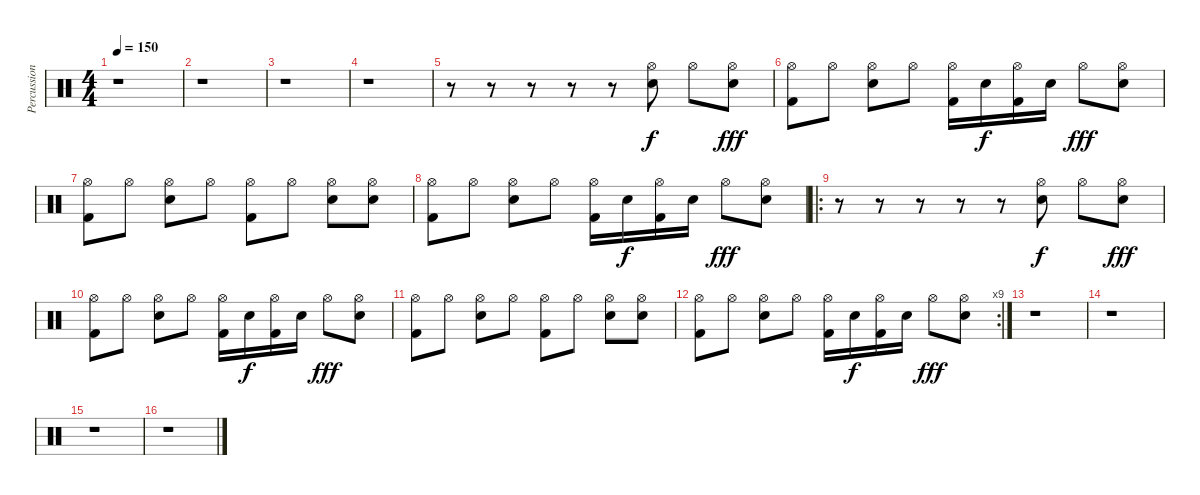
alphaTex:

\track ("Percussions" "Percussion") {instrument percussion}
\staff {score}
\articulation defaults
\ts (4 4)
\tempo 150
\clef neutral
\ks c
r.1{dy f} |
r.1 |
r.1 |
r.1 |
r.8 r.8 r.8 r.8 r.8 ("Hi-Hat (open)" "Electric Snare (hit)").8 "Hi-Hat (open)".8 ("Hi-Hat (open)" "Electric Snare (hit)").8{dy fff} |
("Hi-Hat (open)" "Kick (hit) 2").8 "Hi-Hat (open)".8 ("Hi-Hat (open)" "Electric Snare (hit)").8 "Hi-Hat (open)".8 ("Hi-Hat (open)" "Kick (hit) 2").16 "Electric Snare (hit)".16{dy f} ("Hi-Hat (open)" "Kick (hit) 2").16 "Electric Snare (hit)".16 "Hi-Hat (open)".8{dy fff} ("Hi-Hat (open)" "Electric Snare (hit)").8 |
("Hi-Hat (open)" "Kick (hit) 2").8 "Hi-Hat (open)".8 ("Hi-Hat (open)" "Electric Snare (hit)").8 "Hi-Hat (open)".8 ("Hi-Hat (open)" "Kick (hit) 2").8 "Hi-Hat (open)".8 ("Hi-Hat (open)" "Electric Snare (hit)").8 ("Hi-Hat (open)" "Electric Snare (hit)").8 |
("Hi-Hat (open)" "Kick (hit) 2").8 "Hi-Hat (open)".8 ("Hi-Hat (open)" "Electric Snare (hit)").8 "Hi-Hat (open)".8 ("Hi-Hat (open)" "Kick (hit) 2").16 "Electric Snare (hit)".16{dy f} ("Hi-Hat (open)" "Kick (hit) 2").16 "Electric Snare (hit)".16 "Hi-Hat (open)".8{dy fff} ("Hi-Hat (open)" "Electric Snare (hit)").8 |
\ro
r.8 r.8 r.8 r.8 r.8 ("Hi-Hat (open)" "Electric Snare (hit)").8{dy f} "Hi-Hat (open)".8 ("Hi-Hat (open)" "Electric Snare (hit)").8{dy fff} |
("Hi-Hat (open)" "Kick (hit) 2").8 "Hi-Hat (open)".8 ("Hi-Hat (open)" "Electric Snare (hit)").8 "Hi-Hat (open)".8 ("Hi-Hat (open)" "Kick (hit) 2").16 "Electric Snare (hit)".16{dy f} ("Hi-Hat (open)" "Kick (hit) 2").16 "Electric Snare (hit)".16 "Hi-Hat (open)".8{dy fff} ("Hi-Hat (open)" "Electric Snare (hit)").8 |
("Hi-Hat (open)" "Kick (hit) 2").8 "Hi-Hat (open)".8 ("Hi-Hat (open)" "Electric Snare (hit)").8 "Hi-Hat (open)".8 ("Hi-Hat (open)" "Kick (hit) 2").8 "Hi-Hat (open)".8 ("Hi-Hat (open)" "Electric Snare (hit)").8 ("Hi-Hat (open)" "Electric Snare (hit)").8 |
\rc 9
("Hi-Hat (open)" "Kick (hit) 2").8 "Hi-Hat (open)".8 ("Hi-Hat (open)" "Electric Snare (hit)").8 "Hi-Hat (open)".8 ("Hi-Hat (open)" "Kick (hit) 2").16 "Electric Snare (hit)".16{dy f} ("Hi-Hat (open)" "Kick (hit) 2").16 "Electric Snare (hit)".16 "Hi-Hat (open)".8{dy fff} ("Hi-Hat (open)" "Electric Snare (hit)").8 |
r.1 |
r.1 |
r.1 |
r.1
